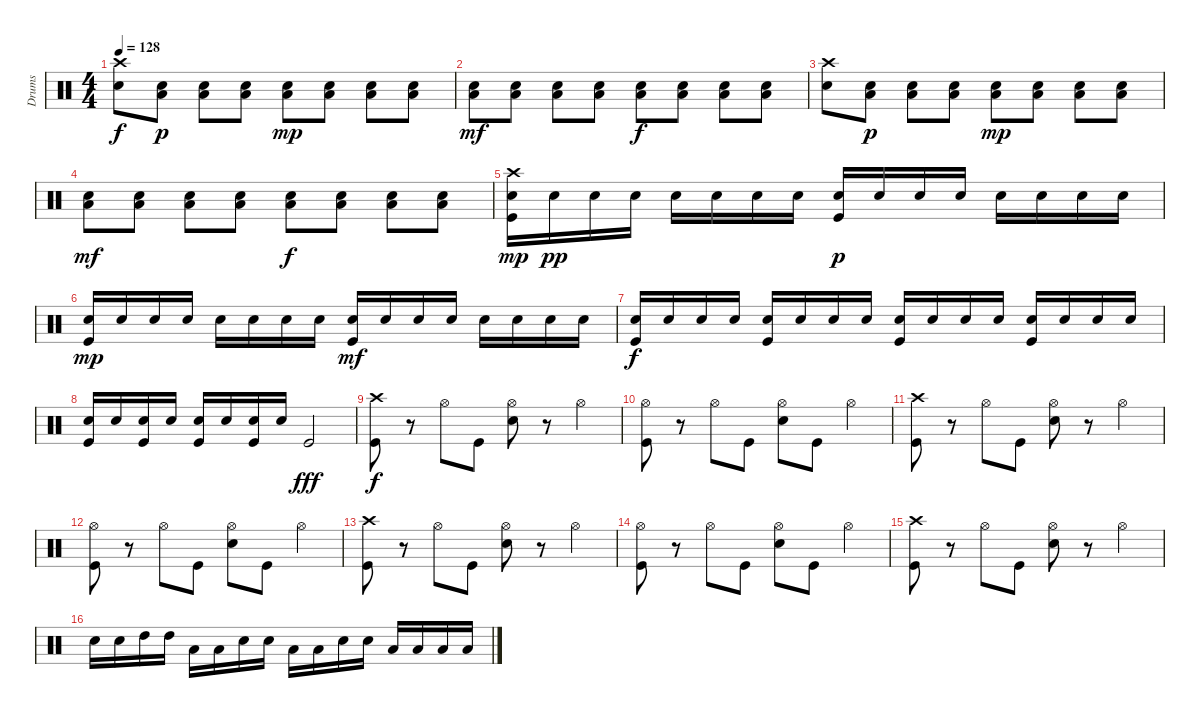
\track ("Drums" "Drums") {instrument percussion}
\staff {score}
\articulation defaults
\ts (4 4)
\tempo 128
\clef neutral
\ks c
("Crash high (hit)" "Snare (hit) 2").8{dy f} ("Low Floor Tom (hit)" "Snare (hit) 2").8{dy p} ("Low Floor Tom (hit)" "Snare (hit) 2").8 ("Low Floor Tom (hit)" "Snare (hit) 2").8 ("Low Floor Tom (hit)" "Snare (hit) 2").8{dy mp} ("Low Floor Tom (hit)" "Snare (hit) 2").8 ("Low Floor Tom (hit)" "Snare (hit) 2").8 ("Low Floor Tom (hit)" "Snare (hit) 2").8 |
("Low Floor Tom (hit)" "Snare (hit) 2").8{dy mf} ("Low Floor Tom (hit)" "Snare (hit) 2").8 ("Low Floor Tom (hit)" "Snare (hit) 2").8 ("Low Floor Tom (hit)" "Snare (hit) 2").8 ("Low Floor Tom (hit)" "Snare (hit) 2").8{dy f} ("Low Floor Tom (hit)" "Snare (hit) 2").8 ("Low Floor Tom (hit)" "Snare (hit) 2").8 ("Low Floor Tom (hit)" "Snare (hit) 2").8 |
("Crash high (hit)" "Snare (hit) 2").8 ("Low Floor Tom (hit)" "Snare (hit) 2").8{dy p} ("Low Floor Tom (hit)" "Snare (hit) 2").8 ("Low Floor Tom (hit)" "Snare (hit) 2").8 ("Low Floor Tom (hit)" "Snare (hit) 2").8{dy mp} ("Low Floor Tom (hit)" "Snare (hit) 2").8 ("Low Floor Tom (hit)" "Snare (hit) 2").8 ("Low Floor Tom (hit)" "Snare (hit) 2").8 |
("Low Floor Tom (hit)" "Snare (hit) 2").8{dy mf} ("Low Floor Tom (hit)" "Snare (hit) 2").8 ("Low Floor Tom (hit)" "Snare (hit) 2").8 ("Low Floor Tom (hit)" "Snare (hit) 2").8 ("Low Floor Tom (hit)" "Snare (hit) 2").8{dy f} ("Low Floor Tom (hit)" "Snare (hit) 2").8 ("Low Floor Tom (hit)" "Snare (hit) 2").8 ("Low Floor Tom (hit)" "Snare (hit) 2").8 |
("Kick (hit)" "Crash high (hit)" "Snare (hit) 2").16{dy mp} "Snare (hit) 2".16{dy pp} "Snare (hit) 2".16 "Snare (hit) 2".16 "Snare (hit) 2".16 "Snare (hit) 2".16 "Snare (hit) 2".16 "Snare (hit) 2".16 ("Kick (hit)" "Snare (hit) 2").16{dy p} "Snare (hit) 2".16 "Snare (hit) 2".16 "Snare (hit) 2".16 "Snare (hit) 2".16 "Snare (hit) 2".16 "Snare (hit) 2".16 "Snare (hit) 2".16 |
("Kick (hit)" "Snare (hit) 2").16{dy mp} "Snare (hit) 2".16 "Snare (hit) 2".16 "Snare (hit) 2".16 "Snare (hit) 2".16 "Snare (hit) 2".16 "Snare (hit) 2".16 "Snare (hit) 2".16 ("Kick (hit)" "Snare (hit) 2").16{dy mf} "Snare (hit) 2".16 "Snare (hit) 2".16 "Snare (hit) 2".16 "Snare (hit) 2".16 "Snare (hit) 2".16 "Snare (hit) 2".16 "Snare (hit) 2".16 |
("Kick (hit)" "Snare (hit) 2").16{dy f} "Snare (hit) 2".16 "Snare (hit) 2".16 "Snare (hit) 2".16 ("Kick (hit)" "Snare (hit) 2").16 "Snare (hit) 2".16 "Snare (hit) 2".16 "Snare (hit) 2".16 ("Kick (hit)" "Snare (hit) 2").16 "Snare (hit) 2".16 "Snare (hit) 2".16 "Snare (hit) 2".16 ("Kick (hit)" "Snare (hit) 2").16 "Snare (hit) 2".16 "Snare (hit) 2".16 "Snare (hit) 2".16 |
("Kick (hit)" "Snare (hit) 2").16 "Snare (hit) 2".16 ("Kick (hit)" "Snare (hit) 2").16 "Snare (hit) 2".16 ("Kick (hit)" "Snare (hit) 2").16 "Snare (hit) 2".16 ("Kick (hit)" "Snare (hit) 2").16 "Snare (hit) 2".16 "Kick (hit)".2{dy fff} |
("Kick (hit)" "Crash high (hit)").8{dy f} r.8 "Hi-Hat (open)".8 "Kick (hit)".8 ("Snare (hit) 2" "Hi-Hat (open)").8 r.8 "Hi-Hat (open)".4 |
("Kick (hit)" "Hi-Hat (open)").8 r.8 "Hi-Hat (open)".8 "Kick (hit)".8 ("Snare (hit) 2" "Hi-Hat (open)").8 "Kick (hit)".8 "Hi-Hat (open)".4 |
("Kick (hit)" "Crash high (hit)").8 r.8 "Hi-Hat (open)".8 "Kick (hit)".8 ("Snare (hit) 2" "Hi-Hat (open)").8 r.8 "Hi-Hat (open)".4 |
("Kick (hit)" "Hi-Hat (open)").8 r.8 "Hi-Hat (open)".8 "Kick (hit)".8 ("Snare (hit) 2" "Hi-Hat (open)").8 "Kick (hit)".8 "Hi-Hat (open)".4 |
("Kick (hit)" "Crash high (hit)").8 r.8 "Hi-Hat (open)".8 "Kick (hit)".8 ("Snare (hit) 2" "Hi-Hat (open)").8 r.8 "Hi-Hat (open)".4 |
("Kick (hit)" "Hi-Hat (open)").8 r.8 "Hi-Hat (open)".8 "Kick (hit)".8 ("Snare (hit) 2" "Hi-Hat (open)").8 "Kick (hit)".8 "Hi-Hat (open)".4 |
("Kick (hit)" "Crash high (hit)").8 r.8 "Hi-Hat (open)".8 "Kick (hit)".8 ("Snare (hit) 2" "Hi-Hat (open)").8 r.8 "Hi-Hat (open)".4 |
"Snare (hit) 2".16 "Electric Snare (hit)".16 "High Tom (hit)".16 "High Tom (hit)".16 "Low Tom (hit)".16 "Low Tom (hit)".16 "Snare (hit) 2".16 "Electric Snare (hit)".16 "Low Tom (hit)".16 "Low Tom (hit)".16 "Snare (hit) 2".16 "Electric Snare (hit)".16 "Low Tom (hit)".16 "Low Tom (hit)".16 "Low Floor Tom (hit)".16 "Low Floor Tom (hit)".16
